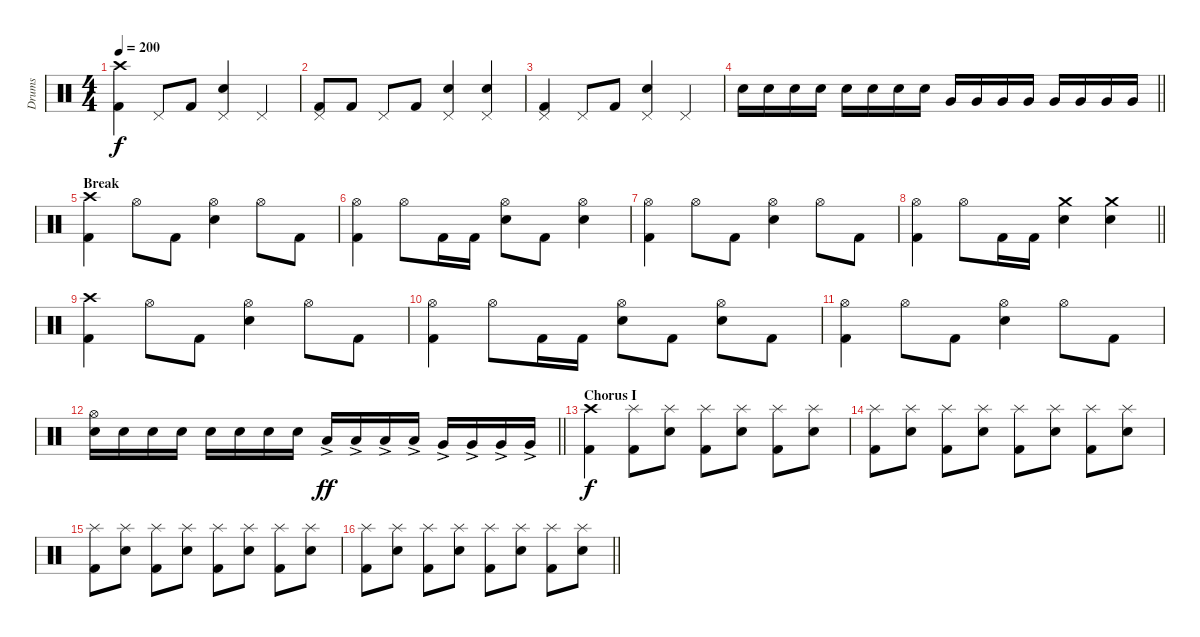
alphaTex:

\track ("Drums" "Drums") {instrument percussion}
\staff {score}
\articulation defaults
\ts (4 4)
\section ("" "")
\tempo 200
\clef neutral
\ks c
("Kick (hit) 2" "Crash high (hit)").4{dy f} "Pedal Hi-Hat (hit)".8 "Kick (hit) 2".8 ("Snare (hit) 2" "Pedal Hi-Hat (hit)").4 "Pedal Hi-Hat (hit)".4 |
("Kick (hit) 2" "Pedal Hi-Hat (hit)").8 "Kick (hit) 2".8 "Pedal Hi-Hat (hit)".8 "Kick (hit) 2".8 ("Snare (hit) 2" "Pedal Hi-Hat (hit)").4 ("Snare (hit) 2" "Pedal Hi-Hat (hit)").4 |
("Kick (hit) 2" "Pedal Hi-Hat (hit)").4 "Pedal Hi-Hat (hit)".8 "Kick (hit) 2".8 ("Snare (hit) 2" "Pedal Hi-Hat (hit)").4 "Pedal Hi-Hat (hit)".4 |
\barLineRight lightlight "Snare (hit) 2".16 "Snare (hit) 2".16 "Snare (hit) 2".16 "Snare (hit) 2".16 "Snare (hit) 2".16 "Snare (hit) 2".16 "Snare (hit) 2".16 "Snare (hit) 2".16 "Very Low Tom (hit)".16 "Very Low Tom (hit)".16 "Very Low Tom (hit)".16 "Very Low Tom (hit)".16 "Very Low Tom (hit)".16 "Very Low Tom (hit)".16 "Very Low Tom (hit)".16 "Very Low Tom (hit)".16
|
\section ("" "Break")
("Kick (hit) 2" "Crash high (hit)").4 "Hi-Hat (open)".8 "Kick (hit) 2".8 ("Snare (hit) 2" "Hi-Hat (open)").4 "Hi-Hat (open)".8 "Kick (hit) 2".8 |
("Kick (hit) 2" "Hi-Hat (open)").4 "Hi-Hat (open)".8 "Kick (hit) 2".16 "Kick (hit) 2".16 ("Snare (hit) 2" "Hi-Hat (open)").8 "Kick (hit) 2".8 ("Snare (hit) 2" "Hi-Hat (open)").4 |
("Kick (hit) 2" "Hi-Hat (open)").4 "Hi-Hat (open)".8 "Kick (hit) 2".8 ("Snare (hit) 2" "Hi-Hat (open)").4 "Hi-Hat (open)".8 "Kick (hit) 2".8 |
\barLineRight lightlight
("Kick (hit) 2" "Hi-Hat (open)").4 "Hi-Hat (open)".8 "Kick (hit) 2".16 "Kick (hit) 2".16 ("Snare (hit) 2" "Crash medium (hit)").4 ("Snare (hit) 2" "Crash medium (hit)").4 |
\section ("" "")
("Kick (hit) 2" "Crash high (hit)").4 "Hi-Hat (open)".8 "Kick (hit) 2".8 ("Snare (hit) 2" "Hi-Hat (open)").4 "Hi-Hat (open)".8 "Kick (hit) 2".8 |
("Kick (hit) 2" "Hi-Hat (open)").4 "Hi-Hat (open)".8 "Kick (hit) 2".16 "Kick (hit) 2".16 ("Snare (hit) 2" "Hi-Hat (open)").8 "Kick (hit) 2".8 ("Snare (hit) 2" "Hi-Hat (open)").8 "Kick (hit) 2".8 |
("Kick (hit) 2" "Hi-Hat (open)").4 "Hi-Hat (open)".8 "Kick (hit) 2".8 ("Snare (hit) 2" "Hi-Hat (open)").4 "Hi-Hat (open)".8 "Kick (hit) 2".8 |
\barLineRight lightlight
("Snare (hit) 2" "Hi-Hat (open)").16 "Snare (hit) 2".16 "Snare (hit) 2".16 "Snare (hit) 2".16 "Snare (hit) 2".16 "Snare (hit) 2".16 "Snare (hit) 2".16 "Snare (hit) 2".16 "Low Tom (hit)"{ac}.16{dy ff} "Low Tom (hit)"{ac}.16 "Low Tom (hit)"{ac}.16 "Low Tom (hit)"{ac}.16 "Very Low Tom (hit)"{ac}.16 "Very Low Tom (hit)"{ac}.16 "Very Low Tom (hit)"{ac}.16 "Very Low Tom (hit)"{ac}.16 |
\section ("" "Chorus I")
("Kick (hit) 2" "Crash high (hit)").4{dy f} ("Kick (hit) 2" "Splash (hit)").8 ("Snare (hit) 2" "Splash (hit)").8 ("Kick (hit) 2" "Splash (hit)").8 ("Snare (hit) 2" "Splash (hit)").8 ("Kick (hit) 2" "Splash (hit)").8 ("Snare (hit) 2" "Splash (hit)").8 |
("Kick (hit) 2" "Splash (hit)").8 ("Snare (hit) 2" "Splash (hit)").8 ("Kick (hit) 2" "Splash (hit)").8 ("Snare (hit) 2" "Splash (hit)").8 ("Kick (hit) 2" "Splash (hit)").8 ("Snare (hit) 2" "Splash (hit)").8 ("Kick (hit) 2" "Splash (hit)").8 ("Snare (hit) 2" "Splash (hit)").8 |
("Kick (hit) 2" "Splash (hit)").8 ("Snare (hit) 2" "Splash (hit)").8 ("Kick (hit) 2" "Splash (hit)").8 ("Snare (hit) 2" "Splash (hit)").8 ("Kick (hit) 2" "Splash (hit)").8 ("Snare (hit) 2" "Splash (hit)").8 ("Kick (hit) 2" "Splash (hit)").8 ("Snare (hit) 2" "Splash (hit)").8 |
\barLineRight lightlight
("Kick (hit) 2" "Splash (hit)").8 ("Snare (hit) 2" "Splash (hit)").8 ("Kick (hit) 2" "Splash (hit)").8 ("Snare (hit) 2" "Splash (hit)").8 ("Kick (hit) 2" "Splash (hit)").8 ("Snare (hit) 2" "Splash (hit)").8 ("Kick (hit) 2" "Splash (hit)").8 ("Snare (hit) 2" "Splash (hit)").8
